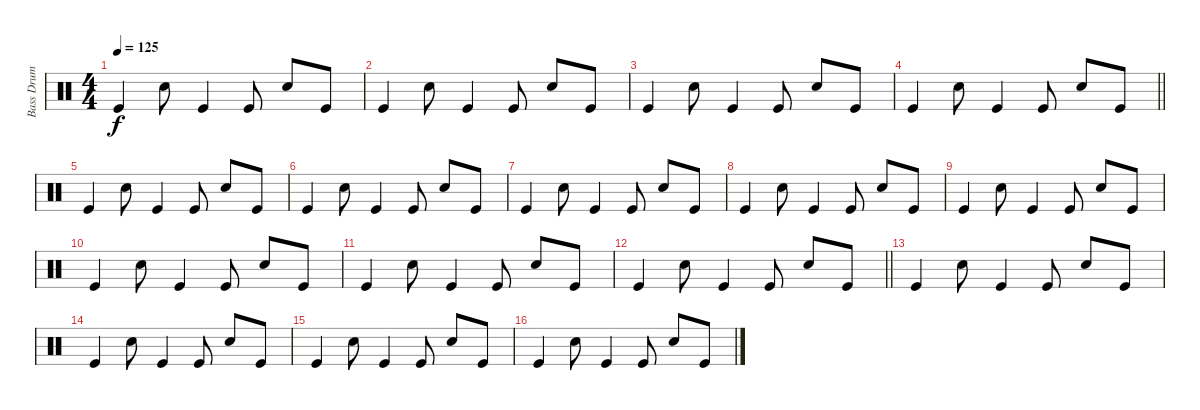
\track ("Bass Drum and Clap" "Bass Drum ") {instrument percussion}
\staff {score}
\articulation defaults
\ts (4 4)
\tempo 125
\clef neutral
\ks c "Kick (hit)".4{dy f} "Hand Clap (hit)".8 "Kick (hit)".4 "Kick (hit)".8 "Hand Clap (hit)".8 "Kick (hit)".8
|
"Kick (hit)".4 "Hand Clap (hit)".8 "Kick (hit)".4 "Kick (hit)".8 "Hand Clap (hit)".8 "Kick (hit)".8 |
"Kick (hit)".4 "Hand Clap (hit)".8 "Kick (hit)".4 "Kick (hit)".8 "Hand Clap (hit)".8 "Kick (hit)".8 |
\barLineRight lightlight "Kick (hit)".4 "Hand Clap (hit)".8 "Kick (hit)".4 "Kick (hit)".8 "Hand Clap (hit)".8 "Kick (hit)".8
|
"Kick (hit)".4 "Hand Clap (hit)".8 "Kick (hit)".4 "Kick (hit)".8 "Hand Clap (hit)".8 "Kick (hit)".8 |
"Kick (hit)".4 "Hand Clap (hit)".8 "Kick (hit)".4 "Kick (hit)".8 "Hand Clap (hit)".8 "Kick (hit)".8 |
"Kick (hit)".4 "Hand Clap (hit)".8 "Kick (hit)".4 "Kick (hit)".8 "Hand Clap (hit)".8 "Kick (hit)".8 |
"Kick (hit)".4 "Hand Clap (hit)".8 "Kick (hit)".4 "Kick (hit)".8 "Hand Clap (hit)".8 "Kick (hit)".8 |
"Kick (hit)".4 "Hand Clap (hit)".8 "Kick (hit)".4 "Kick (hit)".8 "Hand Clap (hit)".8 "Kick (hit)".8 |
"Kick (hit)".4 "Hand Clap (hit)".8 "Kick (hit)".4 "Kick (hit)".8 "Hand Clap (hit)".8 "Kick (hit)".8 |
"Kick (hit)".4 "Hand Clap (hit)".8 "Kick (hit)".4 "Kick (hit)".8 "Hand Clap (hit)".8 "Kick (hit)".8 |
\barLineRight lightlight "Kick (hit)".4 "Hand Clap (hit)".8 "Kick (hit)".4 "Kick (hit)".8 "Hand Clap (hit)".8 "Kick (hit)".8
|
"Kick (hit)".4 "Hand Clap (hit)".8 "Kick (hit)".4 "Kick (hit)".8 "Hand Clap (hit)".8 "Kick (hit)".8 |
"Kick (hit)".4 "Hand Clap (hit)".8 "Kick (hit)".4 "Kick (hit)".8 "Hand Clap (hit)".8 "Kick (hit)".8 |
"Kick (hit)".4 "Hand Clap (hit)".8 "Kick (hit)".4 "Kick (hit)".8 "Hand Clap (hit)".8 "Kick (hit)".8 |
"Kick (hit)".4 "Hand Clap (hit)".8 "Kick (hit)".4 "Kick (hit)".8 "Hand Clap (hit)".8 "Kick (hit)".8
